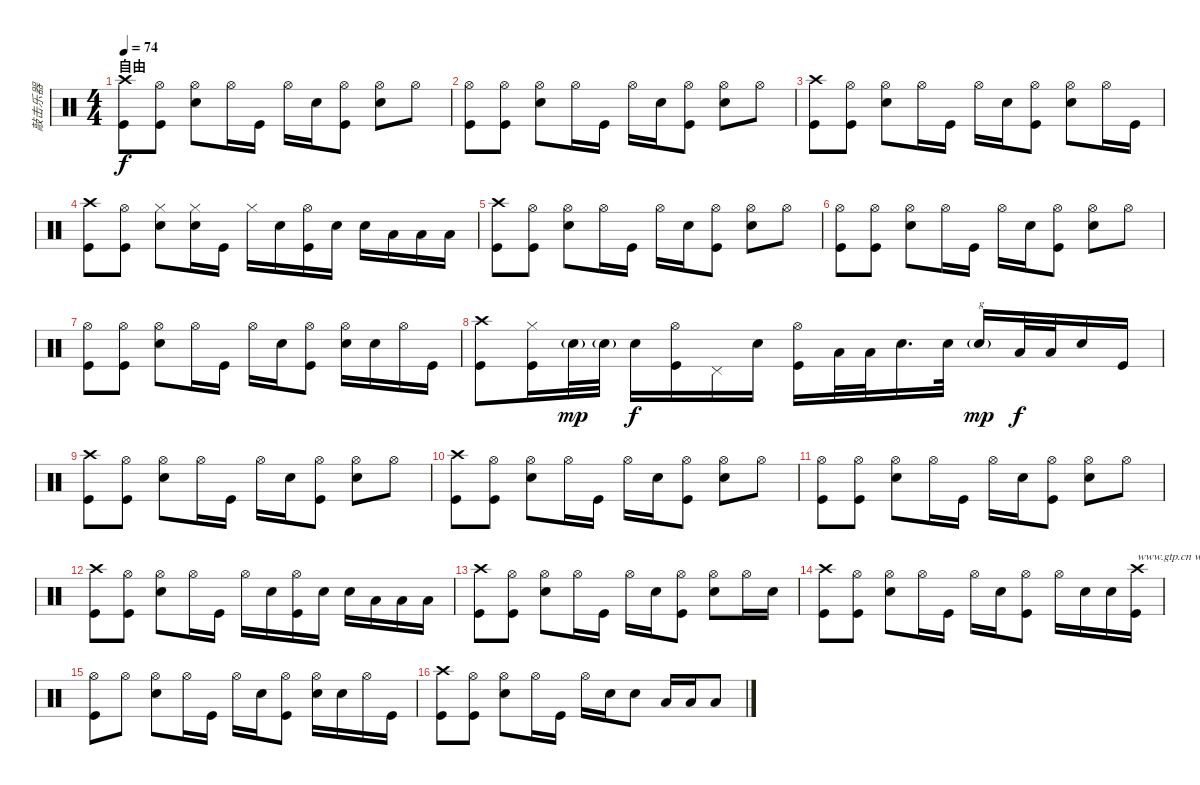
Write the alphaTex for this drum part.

\track ("敲击乐器" "敲击乐器") {instrument percussion}
\staff {score}
\articulation defaults
\ts (4 4)
\section ("" "自由")
\tempo 74
\clef neutral
\ks c
("Crash high (hit)" "Kick (hit)").8{dy f} ("Hi-Hat (open)" "Kick (hit)").8 ("Hi-Hat (open)" "Snare (hit) 2").8 "Hi-Hat (open)".16 "Kick (hit)".16 "Hi-Hat (open)".16 "Snare (hit) 2".16 ("Hi-Hat (open)" "Kick (hit)").8 ("Hi-Hat (open)" "Snare (hit) 2").8 "Hi-Hat (open)".8 |
("Hi-Hat (open)" "Kick (hit)").8 ("Hi-Hat (open)" "Kick (hit)").8 ("Hi-Hat (open)" "Snare (hit) 2").8 "Hi-Hat (open)".16 "Kick (hit)".16 "Hi-Hat (open)".16 "Snare (hit) 2".16 ("Hi-Hat (open)" "Kick (hit)").8 ("Hi-Hat (open)" "Snare (hit) 2").8 "Hi-Hat (open)".8 |
("Crash high (hit)" "Kick (hit)").8 ("Hi-Hat (open)" "Kick (hit)").8 ("Hi-Hat (open)" "Snare (hit) 2").8 "Hi-Hat (open)".16 "Kick (hit)".16 "Hi-Hat (open)".16 "Snare (hit) 2".16 ("Hi-Hat (open)" "Kick (hit)").8 ("Hi-Hat (open)" "Snare (hit) 2").8 "Hi-Hat (open)".16 "Kick (hit)".16 |
("Crash high (hit)" "Kick (hit)").8 ("Hi-Hat (open)" "Kick (hit)").8 ("Hi-Hat (closed)" "Snare (hit) 2").8 ("Hi-Hat (closed)" "Snare (hit) 2").16 "Kick (hit)".16 "Hi-Hat (closed)".16 "Snare (hit) 2".16 ("Hi-Hat (open)" "Kick (hit)").16 "Snare (hit) 2".16 "Snare (hit) 2".16 "Low Tom (hit)".16 "Low Tom (hit)".16 "Low Floor Tom (hit)".16 |
("Crash high (hit)" "Kick (hit)").8 ("Hi-Hat (open)" "Kick (hit)").8 ("Hi-Hat (open)" "Snare (hit) 2").8 "Hi-Hat (open)".16 "Kick (hit)".16 "Hi-Hat (open)".16 "Snare (hit) 2".16 ("Hi-Hat (open)" "Kick (hit)").8 ("Hi-Hat (open)" "Snare (hit) 2").8 "Hi-Hat (open)".8 |
("Hi-Hat (open)" "Kick (hit)").8 ("Hi-Hat (open)" "Kick (hit)").8 ("Hi-Hat (open)" "Snare (hit) 2").8 "Hi-Hat (open)".16 "Kick (hit)".16 "Hi-Hat (open)".16 "Snare (hit) 2".16 ("Hi-Hat (open)" "Kick (hit)").8 ("Hi-Hat (open)" "Snare (hit) 2").8 "Hi-Hat (open)".8 |
("Hi-Hat (open)" "Kick (hit)").8 ("Hi-Hat (open)" "Kick (hit)").8 ("Hi-Hat (open)" "Snare (hit) 2").8 "Hi-Hat (open)".16 "Kick (hit)".16 "Hi-Hat (open)".16 "Snare (hit) 2".16 ("Hi-Hat (open)" "Kick (hit)").8 ("Hi-Hat (open)" "Snare (hit) 2").16 "Snare (hit) 2".16 "Hi-Hat (open)".16 "Kick (hit)".16 |
("Crash high (hit)" "Kick (hit)").8 ("Hi-Hat (closed)" "Kick (hit)").16 "Snare (hit) 2"{g}.32{dy mp} "Snare (hit) 2"{g}.32 "Snare (hit) 2".16{dy f} ("Hi-Hat (open)" "Kick (hit)").16 "Pedal Hi-Hat (hit)".16 "Snare (hit) 2".16 ("Hi-Hat (open)" "Kick (hit)").16 "Low Floor Tom (hit)".32 "Low Floor Tom (hit)".32 "Snare (hit) 2".16{d} "Snare (hit) 2".32 "Snare (hit) 2"{g}.16{txt "g" dy mp} "Low Floor Tom (hit)".32{dy f} "Low Floor Tom (hit)".32 "Snare (hit) 2".16 "Kick (hit)".16 |
("Crash high (hit)" "Kick (hit)").8 ("Hi-Hat (open)" "Kick (hit)").8 ("Hi-Hat (open)" "Snare (hit) 2").8 "Hi-Hat (open)".16 "Kick (hit)".16 "Hi-Hat (open)".16 "Snare (hit) 2".16 ("Hi-Hat (open)" "Kick (hit)").8 ("Hi-Hat (open)" "Snare (hit) 2").8 "Hi-Hat (open)".8 |
("Crash high (hit)" "Kick (hit)").8 ("Hi-Hat (open)" "Kick (hit)").8 ("Hi-Hat (open)" "Snare (hit) 2").8 "Hi-Hat (open)".16 "Kick (hit)".16 "Hi-Hat (open)".16 "Snare (hit) 2".16 ("Hi-Hat (open)" "Kick (hit)").8 ("Hi-Hat (open)" "Snare (hit) 2").8 "Hi-Hat (open)".8 |
("Hi-Hat (open)" "Kick (hit)").8 ("Hi-Hat (open)" "Kick (hit)").8 ("Hi-Hat (open)" "Snare (hit) 2").8 "Hi-Hat (open)".16 "Kick (hit)".16 "Hi-Hat (open)".16 "Snare (hit) 2".16 ("Hi-Hat (open)" "Kick (hit)").8 ("Hi-Hat (open)" "Snare (hit) 2").8 "Hi-Hat (open)".8 |
("Crash high (hit)" "Kick (hit)").8 ("Hi-Hat (open)" "Kick (hit)").8 ("Hi-Hat (open)" "Snare (hit) 2").8 "Hi-Hat (open)".16 "Kick (hit)".16 "Hi-Hat (open)".16 "Snare (hit) 2".16 ("Hi-Hat (open)" "Kick (hit)").16 "Snare (hit) 2".16 "Snare (hit) 2".16 "Low Tom (hit)".16 "Low Tom (hit)".16 "Low Floor Tom (hit)".16 |
("Crash high (hit)" "Kick (hit)").8 ("Hi-Hat (open)" "Kick (hit)").8 ("Hi-Hat (open)" "Snare (hit) 2").8 "Hi-Hat (open)".16 "Kick (hit)".16 "Hi-Hat (open)".16 "Snare (hit) 2".16 ("Hi-Hat (open)" "Kick (hit)").8 ("Hi-Hat (open)" "Snare (hit) 2").8 "Hi-Hat (open)".16 "Snare (hit) 2".16 |
("Crash high (hit)" "Kick (hit)").8 ("Hi-Hat (open)" "Kick (hit)").8 ("Hi-Hat (open)" "Snare (hit) 2").8 "Hi-Hat (open)".16 "Kick (hit)".16 "Hi-Hat (open)".16 "Snare (hit) 2".16 ("Hi-Hat (open)" "Kick (hit)").8 "Hi-Hat (open)".16 "Snare (hit) 2".16 "Snare (hit) 2".16 ("Crash high (hit)" "Kick (hit)").16{txt "www.gtp.cn www.51gtp.com联合为您提供优秀的GTP!"} |
("Hi-Hat (open)" "Kick (hit)").8 "Hi-Hat (open)".8 ("Hi-Hat (open)" "Snare (hit) 2").8 "Hi-Hat (open)".16 "Kick (hit)".16 "Hi-Hat (open)".16 "Snare (hit) 2".16 ("Hi-Hat (open)" "Kick (hit)").8 ("Hi-Hat (open)" "Snare (hit) 2").16 "Snare (hit) 2".16 "Hi-Hat (open)".16 "Kick (hit)".16 |
("Crash high (hit)" "Kick (hit)").8 ("Hi-Hat (open)" "Kick (hit)").8 ("Hi-Hat (open)" "Snare (hit) 2").8 "Hi-Hat (open)".16 "Kick (hit)".16 "Hi-Hat (open)".16 "Snare (hit) 2".16 "Snare (hit) 2".8 "Low Tom (hit)".16 "Low Tom (hit)".16 "Low Floor Tom (hit)".8
